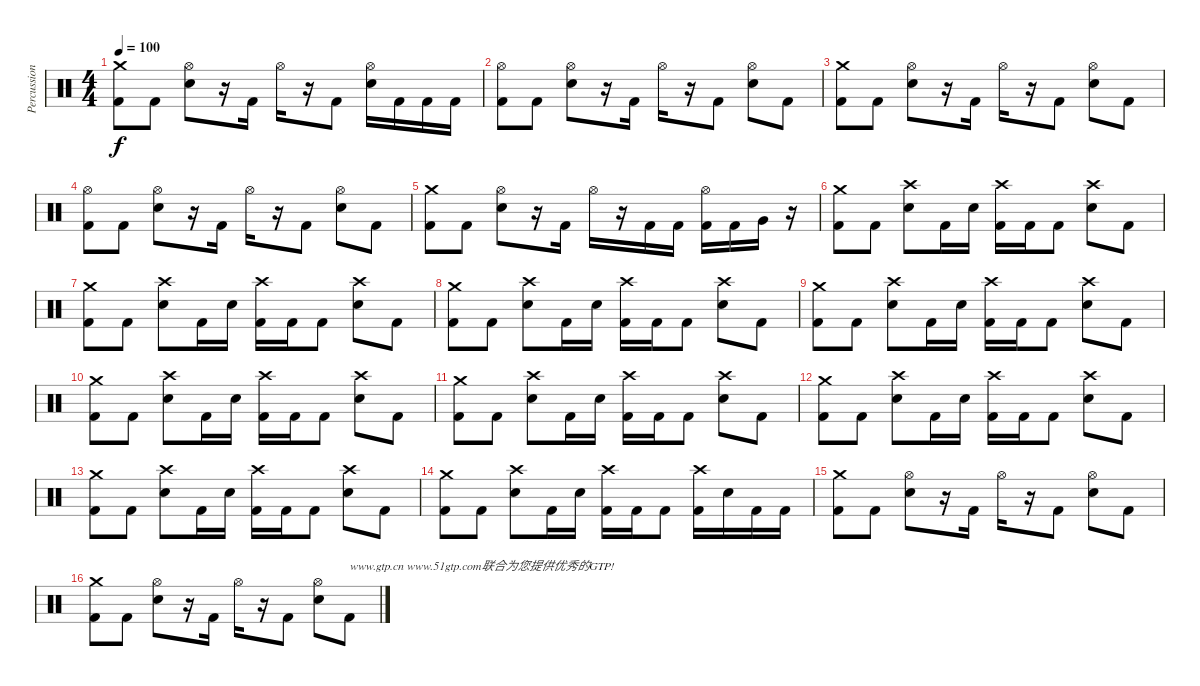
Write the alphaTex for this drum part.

\track ("Percussion" "Percussion") {instrument percussion}
\staff {score}
\articulation defaults
\ts (4 4)
\tempo 100
\clef neutral
\ks c
("Crash medium (hit)" "Kick (hit) 2").8{dy f} "Kick (hit) 2".8 ("Hi-Hat (open)" "Electric Snare (hit)").8 r.16 "Kick (hit) 2".16 "Hi-Hat (open)".16 r.16 "Kick (hit) 2".8 ("Hi-Hat (open)" "Electric Snare (hit)").16 "Kick (hit) 2".16 "Kick (hit) 2".16 "Kick (hit) 2".16 |
("Hi-Hat (open)" "Kick (hit) 2").8 "Kick (hit) 2".8 ("Hi-Hat (open)" "Electric Snare (hit)").8 r.16 "Kick (hit) 2".16 "Hi-Hat (open)".16 r.16 "Kick (hit) 2".8 ("Hi-Hat (open)" "Electric Snare (hit)").8 "Kick (hit) 2".8 |
("Crash medium (hit)" "Kick (hit) 2").8 "Kick (hit) 2".8 ("Hi-Hat (open)" "Electric Snare (hit)").8 r.16 "Kick (hit) 2".16 "Hi-Hat (open)".16 r.16 "Kick (hit) 2".8 ("Hi-Hat (open)" "Electric Snare (hit)").8 "Kick (hit) 2".8 |
("Hi-Hat (open)" "Kick (hit) 2").8 "Kick (hit) 2".8 ("Hi-Hat (open)" "Electric Snare (hit)").8 r.16 "Kick (hit) 2".16 "Hi-Hat (open)".16 r.16 "Kick (hit) 2".8 ("Hi-Hat (open)" "Electric Snare (hit)").8 "Kick (hit) 2".8 |
("Crash medium (hit)" "Kick (hit) 2").8 "Kick (hit) 2".8 ("Hi-Hat (open)" "Electric Snare (hit)").8 r.16 "Kick (hit) 2".16 "Hi-Hat (open)".16 r.16 "Kick (hit) 2".16 "Kick (hit) 2".16 ("Hi-Hat (open)" "Kick (hit) 2").16 "Kick (hit) 2".16 "Very Low Tom (hit)".16 r.16 |
("Crash medium (hit)" "Kick (hit) 2").8 "Kick (hit) 2".8 ("Crash high (hit)" "Electric Snare (hit)").8 "Kick (hit) 2".16 "Electric Snare (hit)".16 ("Crash high (hit)" "Kick (hit) 2").16 "Kick (hit) 2".16 "Kick (hit) 2".8 ("Crash high (hit)" "Electric Snare (hit)").8 "Kick (hit) 2".8 |
("Crash medium (hit)" "Kick (hit) 2").8 "Kick (hit) 2".8 ("Crash high (hit)" "Electric Snare (hit)").8 "Kick (hit) 2".16 "Electric Snare (hit)".16 ("Crash high (hit)" "Kick (hit) 2").16 "Kick (hit) 2".16 "Kick (hit) 2".8 ("Crash high (hit)" "Electric Snare (hit)").8 "Kick (hit) 2".8 |
("Crash medium (hit)" "Kick (hit) 2").8 "Kick (hit) 2".8 ("Crash high (hit)" "Electric Snare (hit)").8 "Kick (hit) 2".16 "Electric Snare (hit)".16 ("Crash high (hit)" "Kick (hit) 2").16 "Kick (hit) 2".16 "Kick (hit) 2".8 ("Crash high (hit)" "Electric Snare (hit)").8 "Kick (hit) 2".8 |
("Crash medium (hit)" "Kick (hit) 2").8 "Kick (hit) 2".8 ("Crash high (hit)" "Electric Snare (hit)").8 "Kick (hit) 2".16 "Electric Snare (hit)".16 ("Crash high (hit)" "Kick (hit) 2").16 "Kick (hit) 2".16 "Kick (hit) 2".8 ("Crash high (hit)" "Electric Snare (hit)").8 "Kick (hit) 2".8 |
("Crash medium (hit)" "Kick (hit) 2").8 "Kick (hit) 2".8 ("Crash high (hit)" "Electric Snare (hit)").8 "Kick (hit) 2".16 "Electric Snare (hit)".16 ("Crash high (hit)" "Kick (hit) 2").16 "Kick (hit) 2".16 "Kick (hit) 2".8 ("Crash high (hit)" "Electric Snare (hit)").8 "Kick (hit) 2".8 |
("Crash medium (hit)" "Kick (hit) 2").8 "Kick (hit) 2".8 ("Crash high (hit)" "Electric Snare (hit)").8 "Kick (hit) 2".16 "Electric Snare (hit)".16 ("Crash high (hit)" "Kick (hit) 2").16 "Kick (hit) 2".16 "Kick (hit) 2".8 ("Crash high (hit)" "Electric Snare (hit)").8 "Kick (hit) 2".8 |
("Crash medium (hit)" "Kick (hit) 2").8 "Kick (hit) 2".8 ("Crash high (hit)" "Electric Snare (hit)").8 "Kick (hit) 2".16 "Electric Snare (hit)".16 ("Crash high (hit)" "Kick (hit) 2").16 "Kick (hit) 2".16 "Kick (hit) 2".8 ("Crash high (hit)" "Electric Snare (hit)").8 "Kick (hit) 2".8 |
("Crash medium (hit)" "Kick (hit) 2").8 "Kick (hit) 2".8 ("Crash high (hit)" "Electric Snare (hit)").8 "Kick (hit) 2".16 "Electric Snare (hit)".16 ("Crash high (hit)" "Kick (hit) 2").16 "Kick (hit) 2".16 "Kick (hit) 2".8 ("Crash high (hit)" "Electric Snare (hit)").8 "Kick (hit) 2".8 |
("Crash medium (hit)" "Kick (hit) 2").8 "Kick (hit) 2".8 ("Crash high (hit)" "Electric Snare (hit)").8 "Kick (hit) 2".16 "Electric Snare (hit)".16 ("Crash high (hit)" "Kick (hit) 2").16 "Kick (hit) 2".16 "Kick (hit) 2".8 ("Crash high (hit)" "Kick (hit) 2").16 "Electric Snare (hit)".16 "Kick (hit) 2".16 "Kick (hit) 2".16 |
("Crash medium (hit)" "Kick (hit) 2").8 "Kick (hit) 2".8 ("Hi-Hat (open)" "Electric Snare (hit)").8 r.16 "Kick (hit) 2".16 "Hi-Hat (open)".16 r.16 "Kick (hit) 2".8 ("Hi-Hat (open)" "Electric Snare (hit)").8 "Kick (hit) 2".8 |
("Crash medium (hit)" "Kick (hit) 2").8 "Kick (hit) 2".8 ("Hi-Hat (open)" "Electric Snare (hit)").8 r.16 "Kick (hit) 2".16 "Hi-Hat (open)".16 r.16 "Kick (hit) 2".8 ("Hi-Hat (open)" "Electric Snare (hit)").8 "Kick (hit) 2".8{txt "www.gtp.cn www.51gtp.com联合为您提供优秀的GTP!"}
